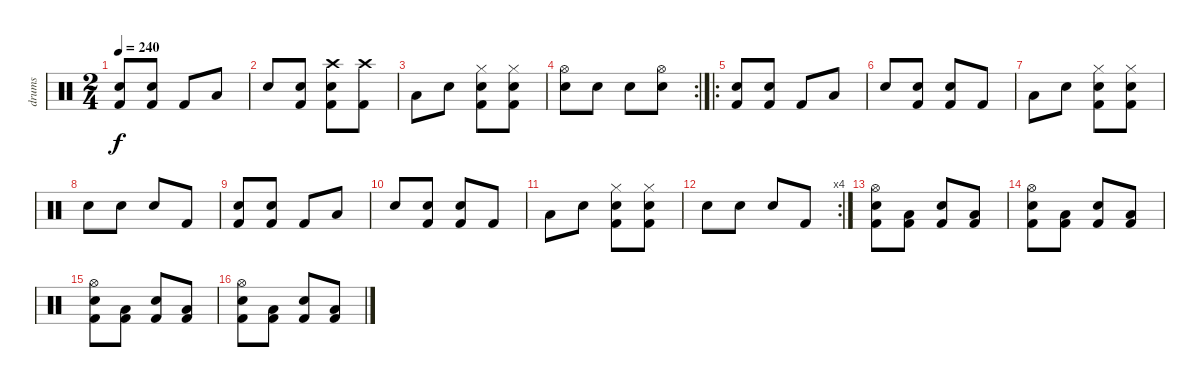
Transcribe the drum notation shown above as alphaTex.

\track ("drums" "drums") {instrument percussion}
\staff {score}
\articulation defaults
\ts (2 4)
\tempo 240
\clef neutral
\ks c
("Electric Snare (hit)" "Kick (hit) 2").8{dy f} ("Electric Snare (hit)" "Kick (hit) 2").8 "Kick (hit) 2".8 "Low Tom (hit)".8 |
"Snare (hit) 2".8 ("Electric Snare (hit)" "Kick (hit) 2").8 ("Crash high (hit)" "Electric Snare (hit)" "Kick (hit) 2").8 ("Crash high (hit)" "Kick (hit) 2").8 |
"Low Tom (hit)".8 "Snare (hit) 2".8 ("Hi-Hat (closed)" "Electric Snare (hit)" "Kick (hit) 2").8 ("Hi-Hat (closed)" "Electric Snare (hit)" "Kick (hit) 2").8 |
\rc 2
("Hi-Hat (open)" "Snare (hit) 2").8 "Snare (hit) 2".8 "Snare (hit) 2".8 ("Hi-Hat (open)" "Snare (hit) 2").8 |
\ro
("Electric Snare (hit)" "Kick (hit) 2").8 ("Electric Snare (hit)" "Kick (hit) 2").8 "Kick (hit) 2".8 "Low Tom (hit)".8 |
"Snare (hit) 2".8 ("Electric Snare (hit)" "Kick (hit) 2").8 ("Electric Snare (hit)" "Kick (hit) 2").8 "Kick (hit) 2".8 |
"Low Tom (hit)".8 "Snare (hit) 2".8 ("Hi-Hat (closed)" "Electric Snare (hit)" "Kick (hit) 2").8 ("Hi-Hat (closed)" "Electric Snare (hit)" "Kick (hit) 2").8 |
"Snare (hit) 2".8 "Electric Snare (hit)".8 "Electric Snare (hit)".8 "Kick (hit) 2".8 |
("Electric Snare (hit)" "Kick (hit) 2").8 ("Electric Snare (hit)" "Kick (hit) 2").8 "Kick (hit) 2".8 "Low Tom (hit)".8 |
"Snare (hit) 2".8 ("Electric Snare (hit)" "Kick (hit) 2").8 ("Electric Snare (hit)" "Kick (hit) 2").8 "Kick (hit) 2".8 |
"Low Tom (hit)".8 "Snare (hit) 2".8 ("Hi-Hat (closed)" "Electric Snare (hit)" "Kick (hit) 2").8 ("Hi-Hat (closed)" "Electric Snare (hit)" "Kick (hit) 2").8 |
\rc 4 "Snare (hit) 2".8 "Electric Snare (hit)".8 "Electric Snare (hit)".8 "Kick (hit) 2".8
|
("Hi-Hat (open)" "Snare (hit) 2" "Kick (hit) 2").8 ("Low Tom (hit)" "Kick (hit) 2").8 ("Snare (hit) 2" "Kick (hit) 2").8 ("Low Tom (hit)" "Kick (hit) 2").8 |
("Hi-Hat (open)" "Snare (hit) 2" "Kick (hit) 2").8 ("Low Tom (hit)" "Kick (hit) 2").8 ("Snare (hit) 2" "Kick (hit) 2").8 ("Low Tom (hit)" "Kick (hit) 2").8 |
("Hi-Hat (open)" "Snare (hit) 2" "Kick (hit) 2").8 ("Low Tom (hit)" "Kick (hit) 2").8 ("Snare (hit) 2" "Kick (hit) 2").8 ("Low Tom (hit)" "Kick (hit) 2").8 |
("Hi-Hat (open)" "Snare (hit) 2" "Kick (hit) 2").8 ("Low Tom (hit)" "Kick (hit) 2").8 ("Snare (hit) 2" "Kick (hit) 2").8 ("Low Tom (hit)" "Kick (hit) 2").8
